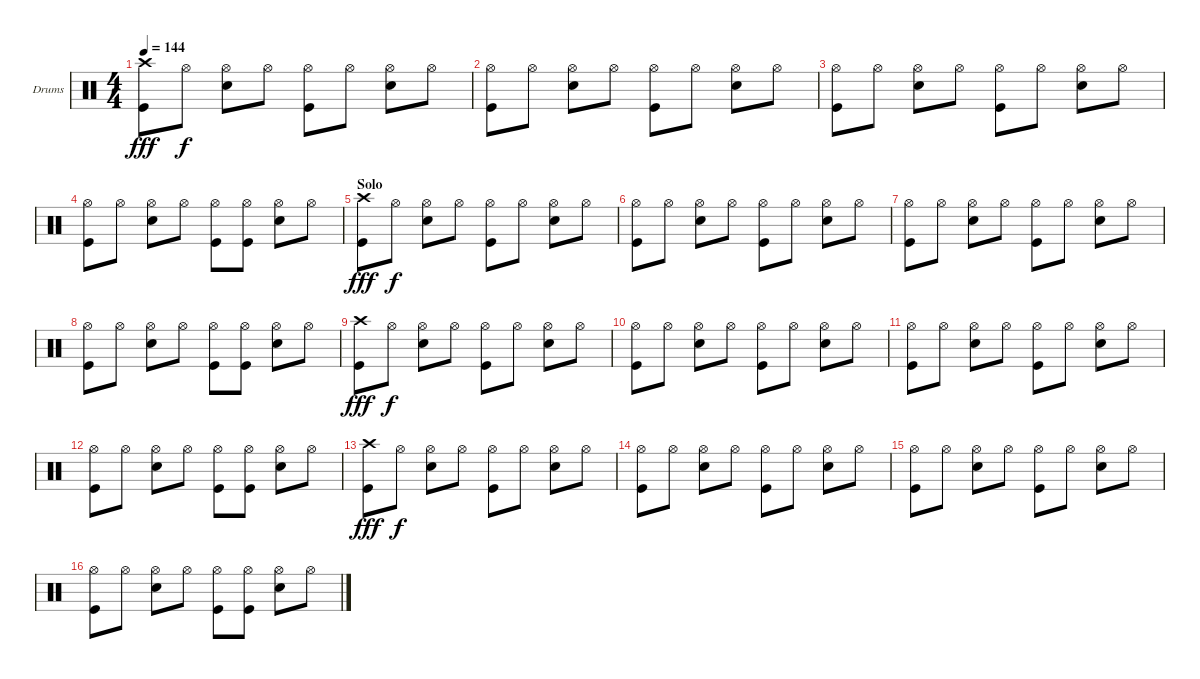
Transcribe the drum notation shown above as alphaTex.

\bracketExtendMode groupsimilarinstruments
\firstSystemTrackNameOrientation horizontal
\otherSystemsTrackNameOrientation horizontal
\track ("Drums" "Drums") {instrument percussion}
\staff {score}
\articulation defaults
\ts (4 4)
\tempo 144
\clef neutral
\ks c
("Crash high (hit)" "Kick (hit)").8{dy fff} "Hi-Hat (open)".8{dy f} ("Hi-Hat (open)" "Snare (hit) 2").8 "Hi-Hat (open)".8 ("Hi-Hat (open)" "Kick (hit)").8 "Hi-Hat (open)".8 ("Hi-Hat (open)" "Snare (hit) 2").8 "Hi-Hat (open)".8 |
("Hi-Hat (open)" "Kick (hit)").8 "Hi-Hat (open)".8 ("Hi-Hat (open)" "Snare (hit) 2").8 "Hi-Hat (open)".8 ("Hi-Hat (open)" "Kick (hit)").8 "Hi-Hat (open)".8 ("Hi-Hat (open)" "Snare (hit) 2").8 "Hi-Hat (open)".8 |
("Hi-Hat (open)" "Kick (hit)").8 "Hi-Hat (open)".8 ("Hi-Hat (open)" "Snare (hit) 2").8 "Hi-Hat (open)".8 ("Hi-Hat (open)" "Kick (hit)").8 "Hi-Hat (open)".8 ("Hi-Hat (open)" "Snare (hit) 2").8 "Hi-Hat (open)".8 |
("Hi-Hat (open)" "Kick (hit)").8 "Hi-Hat (open)".8 ("Hi-Hat (open)" "Snare (hit) 2").8 "Hi-Hat (open)".8 ("Hi-Hat (open)" "Kick (hit)").8 ("Hi-Hat (open)" "Kick (hit)").8 ("Hi-Hat (open)" "Snare (hit) 2").8 "Hi-Hat (open)".8 |
\section ("" "Solo")
("Crash high (hit)" "Kick (hit)").8{dy fff} "Hi-Hat (open)".8{dy f} ("Hi-Hat (open)" "Snare (hit) 2").8 "Hi-Hat (open)".8 ("Hi-Hat (open)" "Kick (hit)").8 "Hi-Hat (open)".8 ("Hi-Hat (open)" "Snare (hit) 2").8 "Hi-Hat (open)".8 |
("Hi-Hat (open)" "Kick (hit)").8 "Hi-Hat (open)".8 ("Hi-Hat (open)" "Snare (hit) 2").8 "Hi-Hat (open)".8 ("Hi-Hat (open)" "Kick (hit)").8 "Hi-Hat (open)".8 ("Hi-Hat (open)" "Snare (hit) 2").8 "Hi-Hat (open)".8 |
("Hi-Hat (open)" "Kick (hit)").8 "Hi-Hat (open)".8 ("Hi-Hat (open)" "Snare (hit) 2").8 "Hi-Hat (open)".8 ("Hi-Hat (open)" "Kick (hit)").8 "Hi-Hat (open)".8 ("Hi-Hat (open)" "Snare (hit) 2").8 "Hi-Hat (open)".8 |
("Hi-Hat (open)" "Kick (hit)").8 "Hi-Hat (open)".8 ("Hi-Hat (open)" "Snare (hit) 2").8 "Hi-Hat (open)".8 ("Hi-Hat (open)" "Kick (hit)").8 ("Hi-Hat (open)" "Kick (hit)").8 ("Hi-Hat (open)" "Snare (hit) 2").8 "Hi-Hat (open)".8 |
("Crash high (hit)" "Kick (hit)").8{dy fff} "Hi-Hat (open)".8{dy f} ("Hi-Hat (open)" "Snare (hit) 2").8 "Hi-Hat (open)".8 ("Hi-Hat (open)" "Kick (hit)").8 "Hi-Hat (open)".8 ("Hi-Hat (open)" "Snare (hit) 2").8 "Hi-Hat (open)".8 |
("Hi-Hat (open)" "Kick (hit)").8 "Hi-Hat (open)".8 ("Hi-Hat (open)" "Snare (hit) 2").8 "Hi-Hat (open)".8 ("Hi-Hat (open)" "Kick (hit)").8 "Hi-Hat (open)".8 ("Hi-Hat (open)" "Snare (hit) 2").8 "Hi-Hat (open)".8 |
("Hi-Hat (open)" "Kick (hit)").8 "Hi-Hat (open)".8 ("Hi-Hat (open)" "Snare (hit) 2").8 "Hi-Hat (open)".8 ("Hi-Hat (open)" "Kick (hit)").8 "Hi-Hat (open)".8 ("Hi-Hat (open)" "Snare (hit) 2").8 "Hi-Hat (open)".8 |
("Hi-Hat (open)" "Kick (hit)").8 "Hi-Hat (open)".8 ("Hi-Hat (open)" "Snare (hit) 2").8 "Hi-Hat (open)".8 ("Hi-Hat (open)" "Kick (hit)").8 ("Hi-Hat (open)" "Kick (hit)").8 ("Hi-Hat (open)" "Snare (hit) 2").8 "Hi-Hat (open)".8 |
("Crash high (hit)" "Kick (hit)").8{dy fff} "Hi-Hat (open)".8{dy f} ("Hi-Hat (open)" "Snare (hit) 2").8 "Hi-Hat (open)".8 ("Hi-Hat (open)" "Kick (hit)").8 "Hi-Hat (open)".8 ("Hi-Hat (open)" "Snare (hit) 2").8 "Hi-Hat (open)".8 |
("Hi-Hat (open)" "Kick (hit)").8 "Hi-Hat (open)".8 ("Hi-Hat (open)" "Snare (hit) 2").8 "Hi-Hat (open)".8 ("Hi-Hat (open)" "Kick (hit)").8 "Hi-Hat (open)".8 ("Hi-Hat (open)" "Snare (hit) 2").8 "Hi-Hat (open)".8 |
("Hi-Hat (open)" "Kick (hit)").8 "Hi-Hat (open)".8 ("Hi-Hat (open)" "Snare (hit) 2").8 "Hi-Hat (open)".8 ("Hi-Hat (open)" "Kick (hit)").8 "Hi-Hat (open)".8 ("Hi-Hat (open)" "Snare (hit) 2").8 "Hi-Hat (open)".8 |
("Hi-Hat (open)" "Kick (hit)").8 "Hi-Hat (open)".8 ("Hi-Hat (open)" "Snare (hit) 2").8 "Hi-Hat (open)".8 ("Hi-Hat (open)" "Kick (hit)").8 ("Hi-Hat (open)" "Kick (hit)").8 ("Hi-Hat (open)" "Snare (hit) 2").8 "Hi-Hat (open)".8
